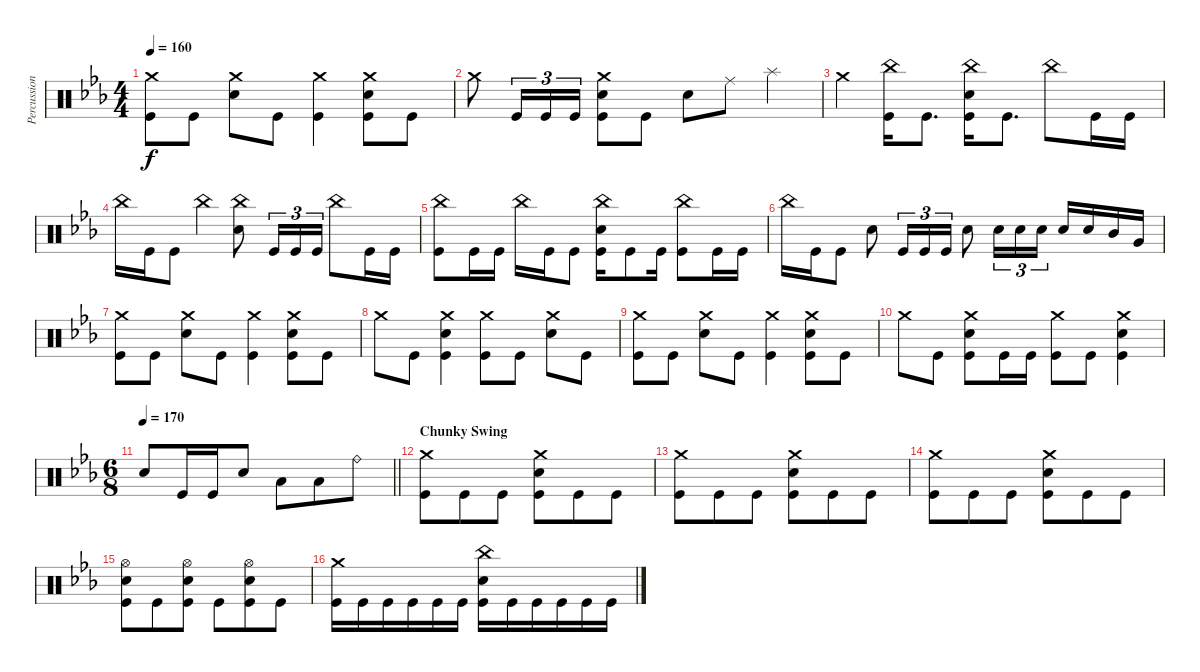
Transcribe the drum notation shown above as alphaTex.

\track ("Percussion" "Percussion") {instrument percussion}
\staff {score}
\articulation defaults
\ts (4 4)
\tempo 160
\clef neutral
\ks eb
("Crash medium (hit)" "Kick (hit)").8{dy f} "Kick (hit)".8 ("Crash medium (hit)" "Electric Snare (hit)").8 "Kick (hit)".8 ("Crash medium (hit)" "Kick (hit)").4 ("Crash medium (hit)" "Electric Snare (hit)" "Kick (hit)").8 "Kick (hit)".8 |
"Crash medium (hit)".8 "Kick (hit)".16{tu (3 2)} "Kick (hit)".16{tu (3 2)} "Kick (hit)".16{tu (3 2)} ("Crash medium (hit)" "Electric Snare (hit)" "Kick (hit)").8 "Kick (hit)".8 "Electric Snare (hit)".8 "Ride (middle)".8 "Splash (hit)".4 |
"Crash medium (hit)".4 ("China (hit)" "Kick (hit)").16 "Kick (hit)".8{d} ("China (hit)" "Electric Snare (hit)" "Kick (hit)").16 "Kick (hit)".8{d} "China (hit)".8 "Kick (hit)".16 "Kick (hit)".16 |
"China (hit)".16 "Kick (hit)".16 "Kick (hit)".8 "China (hit)".4 ("China (hit)" "Electric Snare (hit)").8 "Kick (hit)".16{tu (3 2)} "Kick (hit)".16{tu (3 2)} "Kick (hit)".16{tu (3 2)} "China (hit)".8 "Kick (hit)".16 "Kick (hit)".16 |
("China (hit)" "Kick (hit)").8 "Kick (hit)".16 "Kick (hit)".16 "China (hit)".16 "Kick (hit)".16 "Kick (hit)".8 ("China (hit)" "Electric Snare (hit)" "Kick (hit)").16 "Kick (hit)".8 "Kick (hit)".16 ("China (hit)" "Kick (hit)").8 "Kick (hit)".16 "Kick (hit)".16 |
"China (hit)".16 "Kick (hit)".16 "Kick (hit)".8 "Electric Snare (hit)".8 "Kick (hit)".16{tu (3 2)} "Kick (hit)".16{tu (3 2)} "Kick (hit)".16{tu (3 2)} "Electric Snare (hit)".8 "Electric Snare (hit)".16{tu (3 2)} "Electric Snare (hit)".16{tu (3 2)} "Electric Snare (hit)".16{tu (3 2)} "Electric Snare (hit)".16 "Electric Snare (hit)".16 "Mid Tom (hit)".16 "Very Low Tom (hit)".16 |
("Crash medium (hit)" "Kick (hit)").8 "Kick (hit)".8 ("Crash medium (hit)" "Electric Snare (hit)").8 "Kick (hit)".8 ("Crash medium (hit)" "Kick (hit)").4 ("Crash medium (hit)" "Electric Snare (hit)" "Kick (hit)").8 "Kick (hit)".8 |
"Crash medium (hit)".8 "Kick (hit)".8 ("Crash medium (hit)" "Electric Snare (hit)" "Kick (hit)").4 ("Crash medium (hit)" "Kick (hit)").8 "Kick (hit)".8 ("Crash medium (hit)" "Electric Snare (hit)").8 "Kick (hit)".8 |
("Crash medium (hit)" "Kick (hit)").8 "Kick (hit)".8 ("Crash medium (hit)" "Electric Snare (hit)").8 "Kick (hit)".8 ("Crash medium (hit)" "Kick (hit)").4 ("Crash medium (hit)" "Electric Snare (hit)" "Kick (hit)").8 "Kick (hit)".8 |
"Crash medium (hit)".8 "Kick (hit)".8 ("Crash medium (hit)" "Electric Snare (hit)" "Kick (hit)").8 "Kick (hit)".16 "Kick (hit)".16 ("Crash medium (hit)" "Kick (hit)").8 "Kick (hit)".8 ("Crash medium (hit)" "Electric Snare (hit)" "Kick (hit)").4 |
\ts (6 8)
\tempo 170
\barLineRight lightlight "Electric Snare (hit)".8 "Kick (hit)".16 "Kick (hit)".16 "Electric Snare (hit)".8 "Low Tom (hit)".8 "Low Floor Tom (hit)".8 "Ride (bell)".8
|
\section ("" "Chunky Swing")
("Crash medium (hit)" "Kick (hit)").8 "Kick (hit)".8 "Kick (hit)".8 ("Crash medium (hit)" "Electric Snare (hit)" "Kick (hit)").8 "Kick (hit)".8 "Kick (hit)".8 |
("Crash medium (hit)" "Kick (hit)").8 "Kick (hit)".8 "Kick (hit)".8 ("Crash medium (hit)" "Electric Snare (hit)" "Kick (hit)").8 "Kick (hit)".8 "Kick (hit)".8 |
("Crash medium (hit)" "Kick (hit)").8 "Kick (hit)".8 "Kick (hit)".8 ("Crash medium (hit)" "Electric Snare (hit)" "Kick (hit)").8 "Kick (hit)".8 "Kick (hit)".8 |
("Hi-Hat (open)" "Electric Snare (hit)" "Kick (hit)").8 "Kick (hit)".8 ("Hi-Hat (open)" "Electric Snare (hit)" "Kick (hit)").8 "Kick (hit)".8 ("Hi-Hat (open)" "Electric Snare (hit)" "Kick (hit)").8 "Kick (hit)".8 |
("Crash medium (hit)" "Kick (hit)").16 "Kick (hit)".16 "Kick (hit)".16 "Kick (hit)".16 "Kick (hit)".16 "Kick (hit)".16 ("China (hit)" "Electric Snare (hit)" "Kick (hit)").16 "Kick (hit)".16 "Kick (hit)".16 "Kick (hit)".16 "Kick (hit)".16 "Kick (hit)".16
